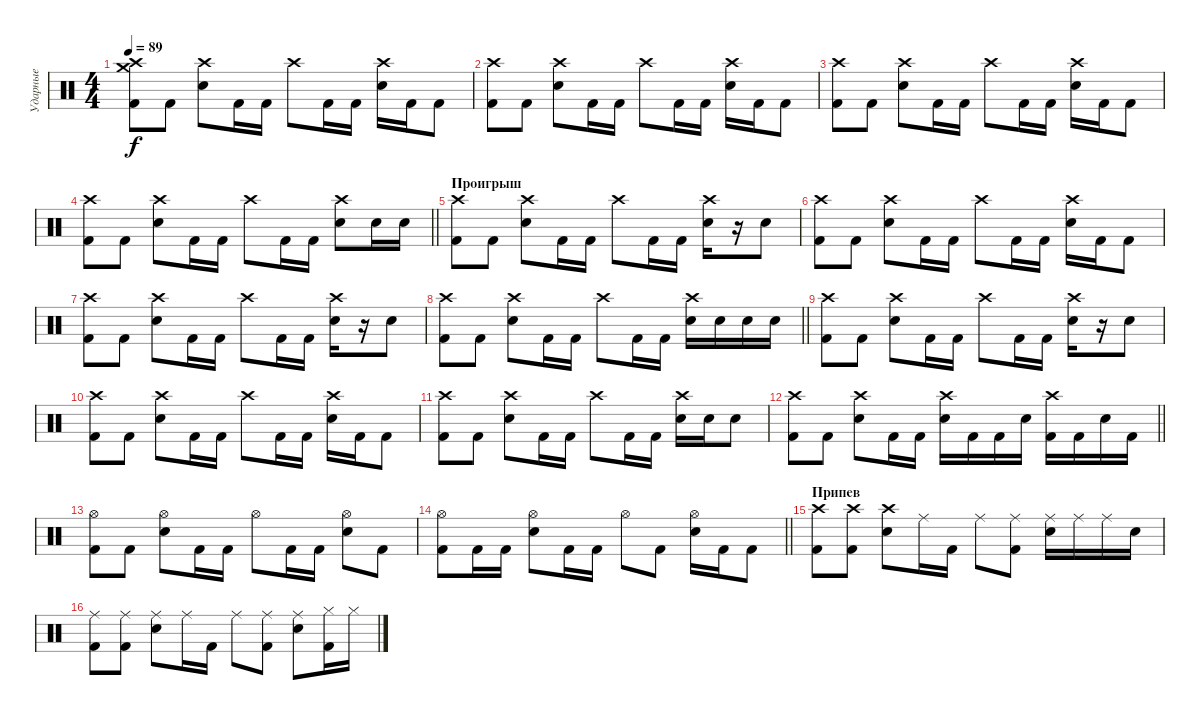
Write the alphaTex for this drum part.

\track ("Ударные" "Ударные") {instrument percussion}
\staff {score}
\articulation defaults
\ts (4 4)
\tempo 89
\clef neutral
\ks c
("Crash high (hit)" "Crash medium (hit)" "Kick (hit) 2").8{dy f} "Kick (hit) 2".8 ("Crash high (hit)" "Snare (hit) 2").8 "Kick (hit) 2".16 "Kick (hit) 2".16 "Crash high (hit)".8 "Kick (hit) 2".16 "Kick (hit) 2".16 ("Crash high (hit)" "Snare (hit) 2").16 "Kick (hit) 2".16 "Kick (hit) 2".8 |
("Crash high (hit)" "Kick (hit) 2").8 "Kick (hit) 2".8 ("Crash high (hit)" "Snare (hit) 2").8 "Kick (hit) 2".16 "Kick (hit) 2".16 "Crash high (hit)".8 "Kick (hit) 2".16 "Kick (hit) 2".16 ("Crash high (hit)" "Snare (hit) 2").16 "Kick (hit) 2".16 "Kick (hit) 2".8 |
("Crash high (hit)" "Kick (hit) 2").8 "Kick (hit) 2".8 ("Crash high (hit)" "Snare (hit) 2").8 "Kick (hit) 2".16 "Kick (hit) 2".16 "Crash high (hit)".8 "Kick (hit) 2".16 "Kick (hit) 2".16 ("Crash high (hit)" "Snare (hit) 2").16 "Kick (hit) 2".16 "Kick (hit) 2".8 |
\barLineRight lightlight
("Crash high (hit)" "Kick (hit) 2").8 "Kick (hit) 2".8 ("Crash high (hit)" "Snare (hit) 2").8 "Kick (hit) 2".16 "Kick (hit) 2".16 "Crash high (hit)".8 "Kick (hit) 2".16 "Kick (hit) 2".16 ("Crash high (hit)" "Snare (hit) 2").8 "Snare (hit) 2".16 "Snare (hit) 2".16 |
\section ("" "Проигрыш")
("Crash high (hit)" "Kick (hit) 2").8 "Kick (hit) 2".8 ("Crash high (hit)" "Snare (hit) 2").8 "Kick (hit) 2".16 "Kick (hit) 2".16 "Crash high (hit)".8 "Kick (hit) 2".16 "Kick (hit) 2".16 ("Crash high (hit)" "Snare (hit) 2").16 r.16 "Snare (hit) 2".8 |
("Crash high (hit)" "Kick (hit) 2").8 "Kick (hit) 2".8 ("Crash high (hit)" "Snare (hit) 2").8 "Kick (hit) 2".16 "Kick (hit) 2".16 "Crash high (hit)".8 "Kick (hit) 2".16 "Kick (hit) 2".16 ("Crash high (hit)" "Snare (hit) 2").16 "Kick (hit) 2".16 "Kick (hit) 2".8 |
("Crash high (hit)" "Kick (hit) 2").8 "Kick (hit) 2".8 ("Crash high (hit)" "Snare (hit) 2").8 "Kick (hit) 2".16 "Kick (hit) 2".16 "Crash high (hit)".8 "Kick (hit) 2".16 "Kick (hit) 2".16 ("Crash high (hit)" "Snare (hit) 2").16 r.16 "Snare (hit) 2".8 |
\barLineRight lightlight
("Crash high (hit)" "Kick (hit) 2").8 "Kick (hit) 2".8 ("Crash high (hit)" "Snare (hit) 2").8 "Kick (hit) 2".16 "Kick (hit) 2".16 "Crash high (hit)".8 "Kick (hit) 2".16 "Kick (hit) 2".16 ("Crash high (hit)" "Snare (hit) 2").16 "Snare (hit) 2".16 "Snare (hit) 2".16 "Snare (hit) 2".16 |
("Crash high (hit)" "Kick (hit) 2").8 "Kick (hit) 2".8 ("Crash high (hit)" "Snare (hit) 2").8 "Kick (hit) 2".16 "Kick (hit) 2".16 "Crash high (hit)".8 "Kick (hit) 2".16 "Kick (hit) 2".16 ("Crash high (hit)" "Snare (hit) 2").16 r.16 "Snare (hit) 2".8 |
("Crash high (hit)" "Kick (hit) 2").8 "Kick (hit) 2".8 ("Crash high (hit)" "Snare (hit) 2").8 "Kick (hit) 2".16 "Kick (hit) 2".16 "Crash high (hit)".8 "Kick (hit) 2".16 "Kick (hit) 2".16 ("Crash high (hit)" "Snare (hit) 2").16 "Kick (hit) 2".16 "Kick (hit) 2".8 |
("Crash high (hit)" "Kick (hit) 2").8 "Kick (hit) 2".8 ("Crash high (hit)" "Snare (hit) 2").8 "Kick (hit) 2".16 "Kick (hit) 2".16 "Crash high (hit)".8 "Kick (hit) 2".16 "Kick (hit) 2".16 ("Crash high (hit)" "Snare (hit) 2").16 "Snare (hit) 2".16 "Snare (hit) 2".8 |
\barLineRight lightlight
("Crash high (hit)" "Kick (hit) 2").8 "Kick (hit) 2".8 ("Crash high (hit)" "Snare (hit) 2").8 "Kick (hit) 2".16 "Kick (hit) 2".16 ("Crash high (hit)" "Snare (hit) 2").16 "Kick (hit) 2".16 "Kick (hit) 2".16 "Snare (hit) 2".16 ("Crash high (hit)" "Kick (hit) 2").16 "Kick (hit) 2".16 "Snare (hit) 2".16 "Kick (hit) 2".16 |
("Hi-Hat (open)" "Kick (hit) 2").8 "Kick (hit) 2".8 ("Hi-Hat (open)" "Snare (hit) 2").8 "Kick (hit) 2".16 "Kick (hit) 2".16 "Hi-Hat (open)".8 "Kick (hit) 2".16 "Kick (hit) 2".16 ("Hi-Hat (open)" "Snare (hit) 2").8 "Kick (hit) 2".8 |
\barLineRight lightlight
("Hi-Hat (open)" "Kick (hit) 2").8 "Kick (hit) 2".16 "Kick (hit) 2".16 ("Hi-Hat (open)" "Snare (hit) 2").8 "Kick (hit) 2".16 "Kick (hit) 2".16 "Hi-Hat (open)".8 "Kick (hit) 2".8 ("Hi-Hat (open)" "Snare (hit) 2").16 "Kick (hit) 2".16 "Kick (hit) 2".8 |
\section ("" "Припев")
("Crash high (hit)" "Kick (hit) 2").8 ("Crash high (hit)" "Kick (hit) 2").8 ("Crash high (hit)" "Snare (hit) 2").8 "Ride (middle)".16 "Kick (hit) 2".16 "Ride (middle)".8 ("Ride (middle)" "Kick (hit) 2").8 ("Ride (middle)" "Snare (hit) 2").16 "Ride (middle)".16 "Ride (middle)".16 "Snare (hit) 2".16 |
("Ride (middle)" "Kick (hit) 2").8 ("Ride (middle)" "Kick (hit) 2").8 ("Ride (middle)" "Snare (hit) 2").8 "Ride (middle)".16 "Kick (hit) 2".16 "Ride (middle)".8 ("Ride (middle)" "Kick (hit) 2").8 ("Ride (middle)" "Snare (hit) 2").8 ("Hi-Hat (closed)" "Kick (hit) 2").16 "Hi-Hat (closed)".16
